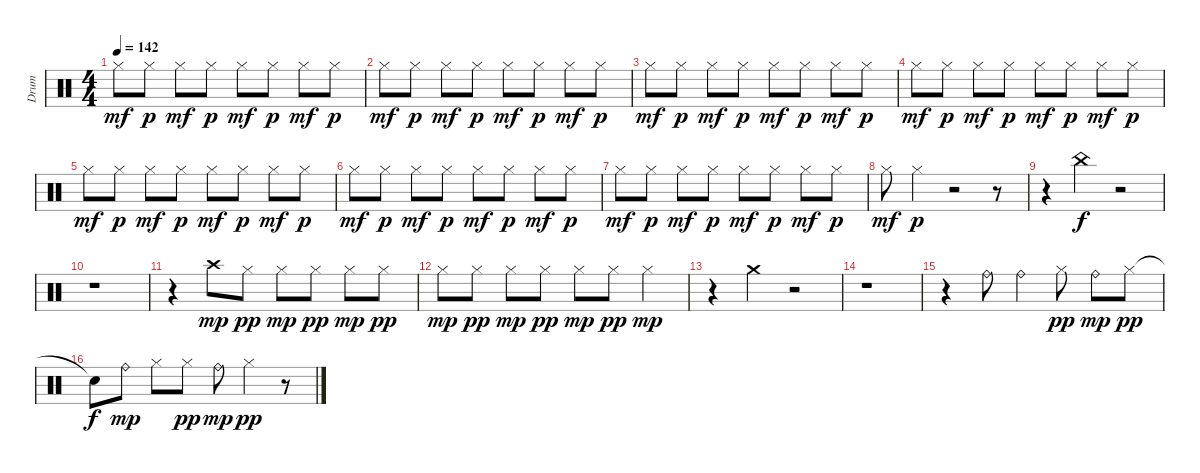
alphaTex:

\track ("Drum" "Drum") {instrument percussion}
\staff {score}
\articulation defaults
\ts (4 4)
\tempo 142
\clef neutral
\ks c "Hi-Hat (closed)".8{dy mf} "Hi-Hat (closed)".8{dy p} "Hi-Hat (closed)".8{dy mf} "Hi-Hat (closed)".8{dy p} "Hi-Hat (closed)".8{dy mf} "Hi-Hat (closed)".8{dy p} "Hi-Hat (closed)".8{dy mf} "Hi-Hat (closed)".8{dy p}
|
"Hi-Hat (closed)".8{dy mf} "Hi-Hat (closed)".8{dy p} "Hi-Hat (closed)".8{dy mf} "Hi-Hat (closed)".8{dy p} "Hi-Hat (closed)".8{dy mf} "Hi-Hat (closed)".8{dy p} "Hi-Hat (closed)".8{dy mf} "Hi-Hat (closed)".8{dy p} |
"Hi-Hat (closed)".8{dy mf} "Hi-Hat (closed)".8{dy p} "Hi-Hat (closed)".8{dy mf} "Hi-Hat (closed)".8{dy p} "Hi-Hat (closed)".8{dy mf} "Hi-Hat (closed)".8{dy p} "Hi-Hat (closed)".8{dy mf} "Hi-Hat (closed)".8{dy p} |
"Hi-Hat (closed)".8{dy mf} "Hi-Hat (closed)".8{dy p} "Hi-Hat (closed)".8{dy mf} "Hi-Hat (closed)".8{dy p} "Hi-Hat (closed)".8{dy mf} "Hi-Hat (closed)".8{dy p} "Hi-Hat (closed)".8{dy mf} "Hi-Hat (closed)".8{dy p} |
"Hi-Hat (closed)".8{dy mf} "Hi-Hat (closed)".8{dy p} "Hi-Hat (closed)".8{dy mf} "Hi-Hat (closed)".8{dy p} "Hi-Hat (closed)".8{dy mf} "Hi-Hat (closed)".8{dy p} "Hi-Hat (closed)".8{dy mf} "Hi-Hat (closed)".8{dy p} |
"Hi-Hat (closed)".8{dy mf} "Hi-Hat (closed)".8{dy p} "Hi-Hat (closed)".8{dy mf} "Hi-Hat (closed)".8{dy p} "Hi-Hat (closed)".8{dy mf} "Hi-Hat (closed)".8{dy p} "Hi-Hat (closed)".8{dy mf} "Hi-Hat (closed)".8{dy p} |
"Hi-Hat (closed)".8{dy mf} "Hi-Hat (closed)".8{dy p} "Hi-Hat (closed)".8{dy mf} "Hi-Hat (closed)".8{dy p} "Hi-Hat (closed)".8{dy mf} "Hi-Hat (closed)".8{dy p} "Hi-Hat (closed)".8{dy mf} "Hi-Hat (closed)".8{dy p} |
"Hi-Hat (closed)".8{dy mf} "Hi-Hat (closed)".4{dy p} r.2 r.8 |
r.4 "China (hit)".4{dy f} r.2 |
r.1 |
r.4 "Crash high (hit)".8{dy mp} "Hi-Hat (closed)".8{dy pp} "Hi-Hat (closed)".8{dy mp} "Hi-Hat (closed)".8{dy pp} "Hi-Hat (closed)".8{dy mp} "Hi-Hat (closed)".8{dy pp} |
"Hi-Hat (closed)".8{dy mp} "Hi-Hat (closed)".8{dy pp} "Hi-Hat (closed)".8{dy mp} "Hi-Hat (closed)".8{dy pp} "Hi-Hat (closed)".8{dy mp} "Hi-Hat (closed)".8{dy pp} "Hi-Hat (closed)".4{dy mp} |
r.4 "Crash medium (hit)".4 r.2 |
r.1 |
r.4 "Ride (bell)".8 "Ride (bell)".4 "Hi-Hat (closed)".8{dy pp} "Ride (bell)".8{dy mp} "Hi-Hat (closed)".8{dy pp} |
"Snare (hit)"{t}.8{dy f} "Ride (bell)".8{dy mp} "Hi-Hat (closed)".8 "Hi-Hat (closed)".8{dy pp} "Ride (bell)".8{dy mp} "Hi-Hat (closed)".4{dy pp} r.8
